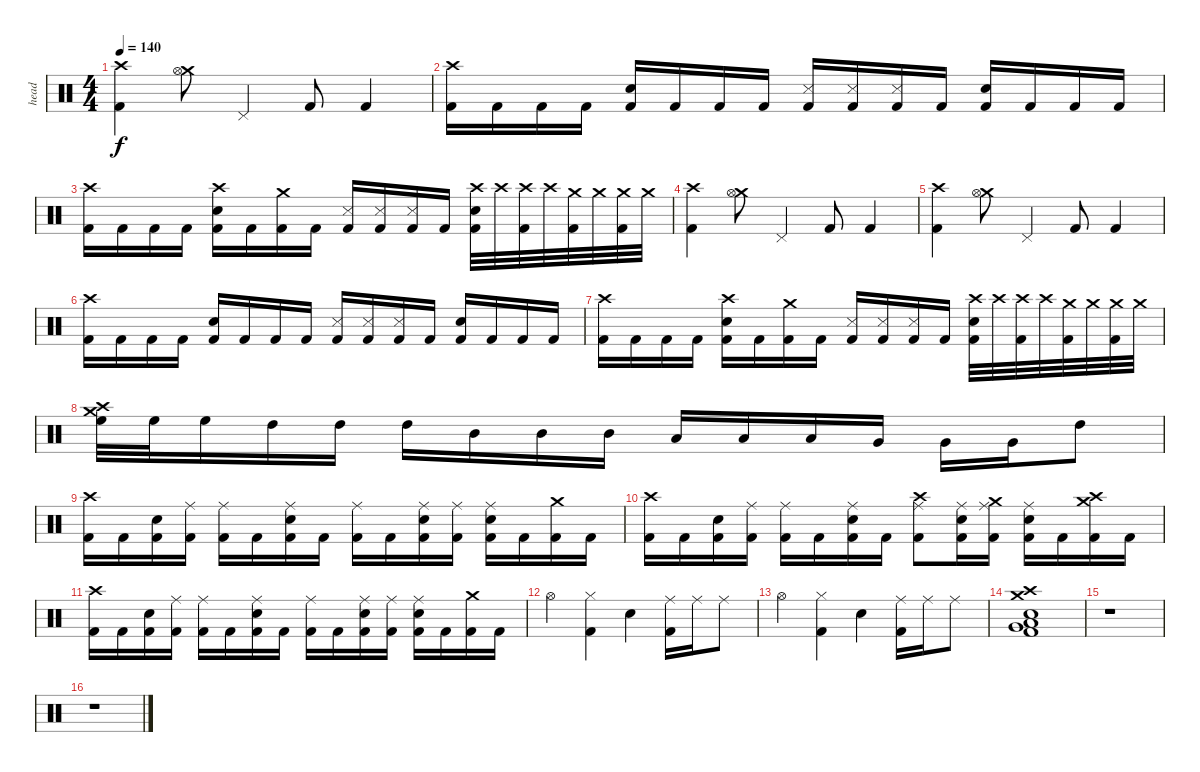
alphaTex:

\track ("head" "head") {instrument percussion}
\staff {score}
\articulation defaults
\ts (4 4)
\tempo 140
\clef neutral
\ks c
("Crash high (hit)" "Kick (hit) 2").4{dy f} ("Crash medium (hit)" "Hi-Hat (open)").8 "Pedal Hi-Hat (hit)".4 "Kick (hit) 2".8 "Kick (hit) 2".4 |
("Crash high (hit)" "Kick (hit) 2").16 "Kick (hit) 2".16 "Kick (hit) 2".16 "Kick (hit) 2".16 ("Snare (hit) 2" "Kick (hit) 2").16 "Kick (hit) 2".16 "Kick (hit) 2".16 "Kick (hit) 2".16 ("Snare (side stick) 3" "Kick (hit) 2").16 ("Snare (side stick) 3" "Kick (hit) 2").16 ("Snare (side stick) 3" "Kick (hit) 2").16 "Kick (hit) 2".16 ("Snare (hit) 2" "Kick (hit) 2").16 "Kick (hit) 2".16 "Kick (hit) 2".16 "Kick (hit) 2".16 |
("Crash high (hit)" "Kick (hit) 2").16 "Kick (hit) 2".16 "Kick (hit) 2".16 "Kick (hit) 2".16 ("Crash high (hit)" "Snare (hit) 2" "Kick (hit) 2").16 "Kick (hit) 2".16 ("Crash medium (hit)" "Kick (hit) 2").16 "Kick (hit) 2".16 ("Snare (side stick) 3" "Kick (hit) 2").16 ("Snare (side stick) 3" "Kick (hit) 2").16 ("Snare (side stick) 3" "Kick (hit) 2").16 "Kick (hit) 2".16 ("Crash high (hit)" "Snare (hit) 2" "Kick (hit) 2").32 "Crash high (hit)".32 ("Crash high (hit)" "Kick (hit) 2").32 "Crash high (hit)".32 ("Crash medium (hit)" "Kick (hit) 2").32 "Crash medium (hit)".32 ("Crash medium (hit)" "Kick (hit) 2").32 "Crash medium (hit)".32 |
("Crash high (hit)" "Kick (hit) 2").4 ("Crash medium (hit)" "Hi-Hat (open)").8 "Pedal Hi-Hat (hit)".4 "Kick (hit) 2".8 "Kick (hit) 2".4 |
("Crash high (hit)" "Kick (hit) 2").4 ("Crash medium (hit)" "Hi-Hat (open)").8 "Pedal Hi-Hat (hit)".4 "Kick (hit) 2".8 "Kick (hit) 2".4 |
("Crash high (hit)" "Kick (hit) 2").16 "Kick (hit) 2".16 "Kick (hit) 2".16 "Kick (hit) 2".16 ("Snare (hit) 2" "Kick (hit) 2").16 "Kick (hit) 2".16 "Kick (hit) 2".16 "Kick (hit) 2".16 ("Snare (side stick) 3" "Kick (hit) 2").16 ("Snare (side stick) 3" "Kick (hit) 2").16 ("Snare (side stick) 3" "Kick (hit) 2").16 "Kick (hit) 2".16 ("Snare (hit) 2" "Kick (hit) 2").16 "Kick (hit) 2".16 "Kick (hit) 2".16 "Kick (hit) 2".16 |
("Crash high (hit)" "Kick (hit) 2").16 "Kick (hit) 2".16 "Kick (hit) 2".16 "Kick (hit) 2".16 ("Crash high (hit)" "Snare (hit) 2" "Kick (hit) 2").16 "Kick (hit) 2".16 ("Crash medium (hit)" "Kick (hit) 2").16 "Kick (hit) 2".16 ("Snare (side stick) 3" "Kick (hit) 2").16 ("Snare (side stick) 3" "Kick (hit) 2").16 ("Snare (side stick) 3" "Kick (hit) 2").16 "Kick (hit) 2".16 ("Crash high (hit)" "Snare (hit) 2" "Kick (hit) 2").32 "Crash high (hit)".32 ("Crash high (hit)" "Kick (hit) 2").32 "Crash high (hit)".32 ("Crash medium (hit)" "Kick (hit) 2").32 "Crash medium (hit)".32 ("Crash medium (hit)" "Kick (hit) 2").32 "Crash medium (hit)".32 |
("High Floor Tom (hit)" "Crash high (hit)" "Crash medium (hit)").32 "High Floor Tom (hit)".32 "High Floor Tom (hit)".16 "High Tom (hit)".16 "High Tom (hit)".16 "High Tom (hit)".16 "Mid Tom (hit)".16 "Mid Tom (hit)".16 "Mid Tom (hit)".16 "Low Tom (hit)".16 "Low Tom (hit)".16 "Low Tom (hit)".16 "Very Low Tom (hit)".16 "Very Low Tom (hit)".16 "Very Low Tom (hit)".16 "High Tom (hit)".8 |
("Crash high (hit)" "Kick (hit) 2").16 "Kick (hit) 2".16 ("Snare (hit) 2" "Kick (hit) 2").16 ("Ride (middle)" "Kick (hit) 2").16 ("Ride (middle)" "Kick (hit) 2").16 "Kick (hit) 2".16 ("Ride (middle)" "Snare (hit) 2" "Kick (hit) 2").16 "Kick (hit) 2".16 ("Ride (middle)" "Kick (hit) 2").16 "Kick (hit) 2".16 ("Ride (middle)" "Snare (hit) 2" "Kick (hit) 2").16 ("Ride (middle)" "Kick (hit) 2").16 ("Ride (middle)" "Snare (hit) 2" "Kick (hit) 2").16 "Kick (hit) 2".16 ("Crash medium (hit)" "Kick (hit) 2").16 "Kick (hit) 2".16 |
("Crash high (hit)" "Kick (hit) 2").16 "Kick (hit) 2".16 ("Snare (hit) 2" "Kick (hit) 2").16 ("Ride (middle)" "Kick (hit) 2").16 ("Ride (middle)" "Kick (hit) 2").16 "Kick (hit) 2".16 ("Ride (middle)" "Snare (hit) 2" "Kick (hit) 2").16 "Kick (hit) 2".16 ("Ride (middle)" "Crash high (hit)" "Kick (hit) 2").8 ("Ride (middle)" "Snare (hit) 2" "Kick (hit) 2").16 ("Ride (middle)" "Crash medium (hit)" "Kick (hit) 2").16 ("Ride (middle)" "Snare (hit) 2" "Kick (hit) 2").16 "Kick (hit) 2".16 ("Crash high (hit)" "Crash medium (hit)" "Kick (hit) 2").16 "Kick (hit) 2".16 |
("Crash high (hit)" "Kick (hit) 2").16 "Kick (hit) 2".16 ("Snare (hit) 2" "Kick (hit) 2").16 ("Ride (middle)" "Kick (hit) 2").16 ("Ride (middle)" "Kick (hit) 2").16 "Kick (hit) 2".16 ("Ride (middle)" "Snare (hit) 2" "Kick (hit) 2").16 "Kick (hit) 2".16 ("Ride (middle)" "Kick (hit) 2").16 "Kick (hit) 2".16 ("Ride (middle)" "Snare (hit) 2" "Kick (hit) 2").16 ("Ride (middle)" "Kick (hit) 2").16 ("Ride (middle)" "Snare (hit) 2" "Kick (hit) 2").16 "Kick (hit) 2".16 ("Crash medium (hit)" "Kick (hit) 2").16 "Kick (hit) 2".16 |
"Hi-Hat (open)".4 ("Hi-Hat (closed)" "Kick (hit) 2").4 "Snare (hit) 2".4 ("Ride (middle)" "Kick (hit) 2").16 "Ride (middle)".16 "Ride (middle)".8 |
"Hi-Hat (open)".4 ("Hi-Hat (closed)" "Kick (hit) 2").4 "Snare (hit) 2".4 ("Ride (middle)" "Kick (hit) 2").16 "Ride (middle)".16 "Ride (middle)".8 |
("Crash high (hit)" "Crash medium (hit)" "Kick (hit) 2" "Snare (hit) 2" "Low Tom (hit)" "Very Low Tom (hit)").1 |
r.1 |
r.1
